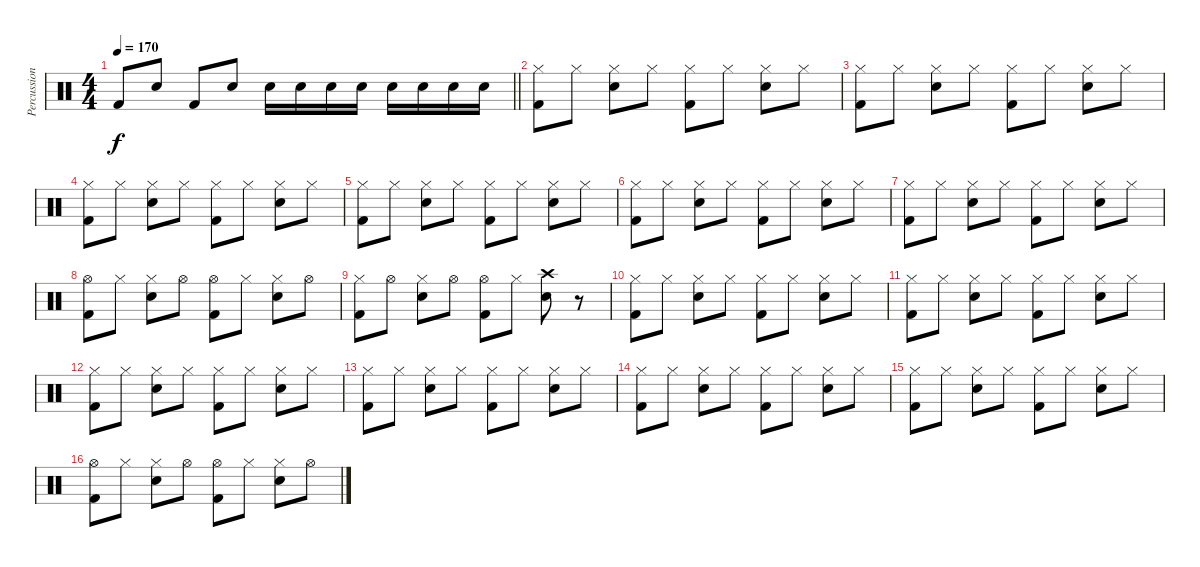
\track ("Percussion" "Percussion") {instrument percussion}
\staff {score}
\articulation defaults
\ts (4 4)
\tempo 170
\clef neutral
\barLineRight lightlight
\ks c "Kick (hit) 2".8{dy f} "Snare (hit) 2".8 "Kick (hit) 2".8 "Snare (hit) 2".8 "Snare (hit) 2".16 "Snare (hit) 2".16 "Snare (hit) 2".16 "Snare (hit) 2".16 "Snare (hit) 2".16 "Snare (hit) 2".16 "Snare (hit) 2".16 "Snare (hit) 2".16
|
("Hi-Hat (closed)" "Kick (hit) 2").8 "Hi-Hat (closed)".8 ("Hi-Hat (closed)" "Snare (hit) 2").8 "Hi-Hat (closed)".8 ("Hi-Hat (closed)" "Kick (hit) 2").8 "Hi-Hat (closed)".8 ("Hi-Hat (closed)" "Snare (hit) 2").8 "Hi-Hat (closed)".8 |
("Hi-Hat (closed)" "Kick (hit) 2").8 "Hi-Hat (closed)".8 ("Hi-Hat (closed)" "Snare (hit) 2").8 "Hi-Hat (closed)".8 ("Hi-Hat (closed)" "Kick (hit) 2").8 "Hi-Hat (closed)".8 ("Hi-Hat (closed)" "Snare (hit) 2").8 "Hi-Hat (closed)".8 |
("Hi-Hat (closed)" "Kick (hit) 2").8 "Hi-Hat (closed)".8 ("Hi-Hat (closed)" "Snare (hit) 2").8 "Hi-Hat (closed)".8 ("Hi-Hat (closed)" "Kick (hit) 2").8 "Hi-Hat (closed)".8 ("Hi-Hat (closed)" "Snare (hit) 2").8 "Hi-Hat (closed)".8 |
("Hi-Hat (closed)" "Kick (hit) 2").8 "Hi-Hat (closed)".8 ("Hi-Hat (closed)" "Snare (hit) 2").8 "Hi-Hat (closed)".8 ("Hi-Hat (closed)" "Kick (hit) 2").8 "Hi-Hat (closed)".8 ("Hi-Hat (closed)" "Snare (hit) 2").8 "Hi-Hat (closed)".8 |
("Hi-Hat (closed)" "Kick (hit) 2").8 "Hi-Hat (closed)".8 ("Hi-Hat (closed)" "Snare (hit) 2").8 "Hi-Hat (closed)".8 ("Hi-Hat (closed)" "Kick (hit) 2").8 "Hi-Hat (closed)".8 ("Hi-Hat (closed)" "Snare (hit) 2").8 "Hi-Hat (closed)".8 |
("Hi-Hat (closed)" "Kick (hit) 2").8 "Hi-Hat (closed)".8 ("Hi-Hat (closed)" "Snare (hit) 2").8 "Hi-Hat (closed)".8 ("Hi-Hat (closed)" "Kick (hit) 2").8 "Hi-Hat (closed)".8 ("Hi-Hat (closed)" "Snare (hit) 2").8 "Hi-Hat (closed)".8 |
("Hi-Hat (open)" "Kick (hit) 2").8 "Hi-Hat (closed)".8 ("Hi-Hat (closed)" "Snare (hit) 2").8 "Hi-Hat (open)".8 ("Hi-Hat (open)" "Kick (hit) 2").8 "Hi-Hat (closed)".8 ("Hi-Hat (closed)" "Snare (hit) 2").8 "Hi-Hat (open)".8 |
("Hi-Hat (closed)" "Kick (hit) 2").8 "Hi-Hat (open)".8 ("Hi-Hat (closed)" "Snare (hit) 2").8 "Hi-Hat (open)".8 ("Hi-Hat (open)" "Kick (hit) 2").8 "Hi-Hat (closed)".8 ("Crash high (hit)" "Snare (hit) 2").8 r.8 |
("Hi-Hat (closed)" "Kick (hit) 2").8 "Hi-Hat (closed)".8 ("Hi-Hat (closed)" "Snare (hit) 2").8 "Hi-Hat (closed)".8 ("Hi-Hat (closed)" "Kick (hit) 2").8 "Hi-Hat (closed)".8 ("Hi-Hat (closed)" "Snare (hit) 2").8 "Hi-Hat (closed)".8 |
("Hi-Hat (closed)" "Kick (hit) 2").8 "Hi-Hat (closed)".8 ("Hi-Hat (closed)" "Snare (hit) 2").8 "Hi-Hat (closed)".8 ("Hi-Hat (closed)" "Kick (hit) 2").8 "Hi-Hat (closed)".8 ("Hi-Hat (closed)" "Snare (hit) 2").8 "Hi-Hat (closed)".8 |
("Hi-Hat (closed)" "Kick (hit) 2").8 "Hi-Hat (closed)".8 ("Hi-Hat (closed)" "Snare (hit) 2").8 "Hi-Hat (closed)".8 ("Hi-Hat (closed)" "Kick (hit) 2").8 "Hi-Hat (closed)".8 ("Hi-Hat (closed)" "Snare (hit) 2").8 "Hi-Hat (closed)".8 |
("Hi-Hat (closed)" "Kick (hit) 2").8 "Hi-Hat (closed)".8 ("Hi-Hat (closed)" "Snare (hit) 2").8 "Hi-Hat (closed)".8 ("Hi-Hat (closed)" "Kick (hit) 2").8 "Hi-Hat (closed)".8 ("Hi-Hat (closed)" "Snare (hit) 2").8 "Hi-Hat (closed)".8 |
("Hi-Hat (closed)" "Kick (hit) 2").8 "Hi-Hat (closed)".8 ("Hi-Hat (closed)" "Snare (hit) 2").8 "Hi-Hat (closed)".8 ("Hi-Hat (closed)" "Kick (hit) 2").8 "Hi-Hat (closed)".8 ("Hi-Hat (closed)" "Snare (hit) 2").8 "Hi-Hat (closed)".8 |
("Hi-Hat (closed)" "Kick (hit) 2").8 "Hi-Hat (closed)".8 ("Hi-Hat (closed)" "Snare (hit) 2").8 "Hi-Hat (closed)".8 ("Hi-Hat (closed)" "Kick (hit) 2").8 "Hi-Hat (closed)".8 ("Hi-Hat (closed)" "Snare (hit) 2").8 "Hi-Hat (closed)".8 |
("Hi-Hat (open)" "Kick (hit) 2").8 "Hi-Hat (closed)".8 ("Hi-Hat (closed)" "Snare (hit) 2").8 "Hi-Hat (open)".8 ("Hi-Hat (open)" "Kick (hit) 2").8 "Hi-Hat (closed)".8 ("Hi-Hat (closed)" "Snare (hit) 2").8 "Hi-Hat (open)".8
